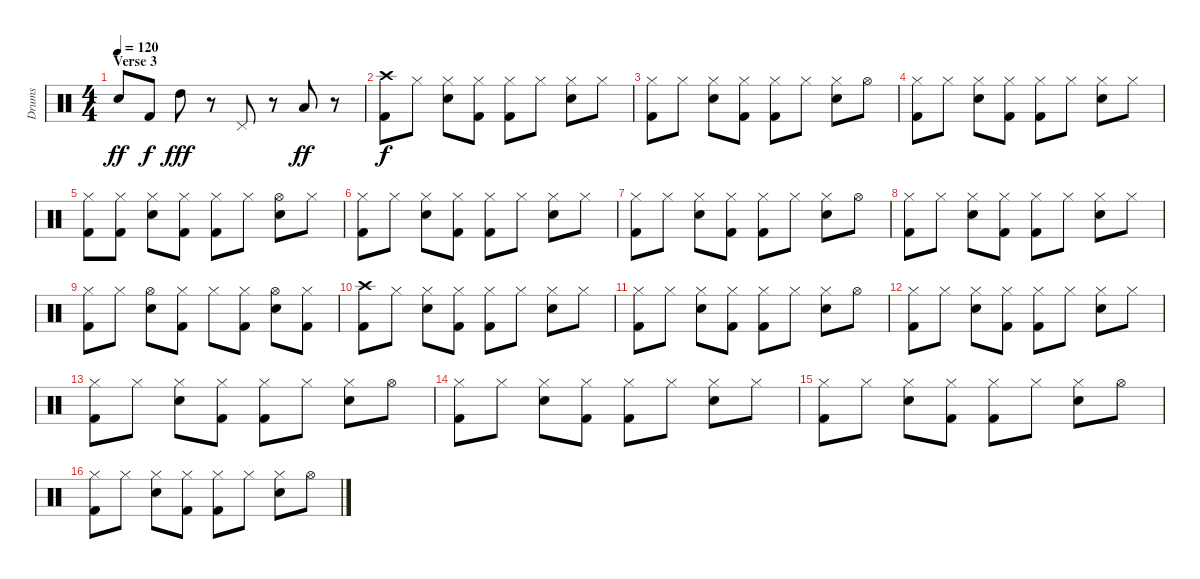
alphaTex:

\track ("Drums" "Drums") {instrument percussion}
\staff {score}
\articulation defaults
\ts (4 4)
\section ("" "Verse 3")
\tempo 120
\clef neutral
\ks c "Snare (hit) 2".8{dy ff} "Kick (hit) 2".8{dy f} "High Tom (hit)".8{dy fff}
r.8 "Pedal Hi-Hat (hit)".8 r.8 "Low Tom (hit)".8{dy ff} r.8 |
("Crash high (hit)" "Kick (hit) 2").8{dy f} "Hi-Hat (closed)".8 ("Hi-Hat (closed)" "Snare (hit) 2").8 ("Hi-Hat (closed)" "Kick (hit) 2").8 ("Hi-Hat (closed)" "Kick (hit) 2").8 "Hi-Hat (closed)".8 ("Hi-Hat (closed)" "Snare (hit) 2").8 "Hi-Hat (closed)".8 |
("Hi-Hat (closed)" "Kick (hit) 2").8 "Hi-Hat (closed)".8 ("Hi-Hat (closed)" "Snare (hit) 2").8 ("Hi-Hat (closed)" "Kick (hit) 2").8 ("Hi-Hat (closed)" "Kick (hit) 2").8 "Hi-Hat (closed)".8 ("Hi-Hat (closed)" "Snare (hit) 2").8 "Hi-Hat (open)".8 |
("Hi-Hat (closed)" "Kick (hit) 2").8 "Hi-Hat (closed)".8 ("Hi-Hat (closed)" "Snare (hit) 2").8 ("Hi-Hat (closed)" "Kick (hit) 2").8 ("Hi-Hat (closed)" "Kick (hit) 2").8 "Hi-Hat (closed)".8 ("Hi-Hat (closed)" "Snare (hit) 2").8 "Hi-Hat (closed)".8 |
("Hi-Hat (closed)" "Kick (hit) 2").8 ("Hi-Hat (closed)" "Kick (hit) 2").8 ("Hi-Hat (closed)" "Snare (hit) 2").8 ("Hi-Hat (closed)" "Kick (hit) 2").8 ("Hi-Hat (closed)" "Kick (hit) 2").8 "Hi-Hat (closed)".8 ("Hi-Hat (open)" "Snare (hit) 2").8 "Hi-Hat (closed)".8 |
("Hi-Hat (closed)" "Kick (hit) 2").8 "Hi-Hat (closed)".8 ("Hi-Hat (closed)" "Snare (hit) 2").8 ("Hi-Hat (closed)" "Kick (hit) 2").8 ("Hi-Hat (closed)" "Kick (hit) 2").8 "Hi-Hat (closed)".8 ("Hi-Hat (closed)" "Snare (hit) 2").8 "Hi-Hat (closed)".8 |
("Hi-Hat (closed)" "Kick (hit) 2").8 "Hi-Hat (closed)".8 ("Hi-Hat (closed)" "Snare (hit) 2").8 ("Hi-Hat (closed)" "Kick (hit) 2").8 ("Hi-Hat (closed)" "Kick (hit) 2").8 "Hi-Hat (closed)".8 ("Hi-Hat (closed)" "Snare (hit) 2").8 "Hi-Hat (open)".8 |
("Hi-Hat (closed)" "Kick (hit) 2").8 "Hi-Hat (closed)".8 ("Hi-Hat (closed)" "Snare (hit) 2").8 ("Hi-Hat (closed)" "Kick (hit) 2").8 ("Hi-Hat (closed)" "Kick (hit) 2").8 "Hi-Hat (closed)".8 ("Hi-Hat (closed)" "Snare (hit) 2").8 "Hi-Hat (closed)".8 |
("Hi-Hat (closed)" "Kick (hit) 2").8 "Hi-Hat (closed)".8 ("Hi-Hat (open)" "Snare (hit) 2").8 ("Hi-Hat (closed)" "Kick (hit) 2").8 "Hi-Hat (closed)".8 ("Hi-Hat (closed)" "Kick (hit) 2").8 ("Hi-Hat (open)" "Snare (hit) 2").8 ("Hi-Hat (closed)" "Kick (hit) 2").8 |
("Crash high (hit)" "Kick (hit) 2").8 "Hi-Hat (closed)".8 ("Hi-Hat (closed)" "Snare (hit) 2").8 ("Hi-Hat (closed)" "Kick (hit) 2").8 ("Hi-Hat (closed)" "Kick (hit) 2").8 "Hi-Hat (closed)".8 ("Hi-Hat (closed)" "Snare (hit) 2").8 "Hi-Hat (closed)".8 |
("Hi-Hat (closed)" "Kick (hit) 2").8 "Hi-Hat (closed)".8 ("Hi-Hat (closed)" "Snare (hit) 2").8 ("Hi-Hat (closed)" "Kick (hit) 2").8 ("Hi-Hat (closed)" "Kick (hit) 2").8 "Hi-Hat (closed)".8 ("Hi-Hat (closed)" "Snare (hit) 2").8 "Hi-Hat (open)".8 |
("Hi-Hat (closed)" "Kick (hit) 2").8 "Hi-Hat (closed)".8 ("Hi-Hat (closed)" "Snare (hit) 2").8 ("Hi-Hat (closed)" "Kick (hit) 2").8 ("Hi-Hat (closed)" "Kick (hit) 2").8 "Hi-Hat (closed)".8 ("Hi-Hat (closed)" "Snare (hit) 2").8 "Hi-Hat (closed)".8 |
("Hi-Hat (closed)" "Kick (hit) 2").8 "Hi-Hat (closed)".8 ("Hi-Hat (closed)" "Snare (hit) 2").8 ("Hi-Hat (closed)" "Kick (hit) 2").8 ("Hi-Hat (closed)" "Kick (hit) 2").8 "Hi-Hat (closed)".8 ("Hi-Hat (closed)" "Snare (hit) 2").8 "Hi-Hat (open)".8 |
("Hi-Hat (closed)" "Kick (hit) 2").8 "Hi-Hat (closed)".8 ("Hi-Hat (closed)" "Snare (hit) 2").8 ("Hi-Hat (closed)" "Kick (hit) 2").8 ("Hi-Hat (closed)" "Kick (hit) 2").8 "Hi-Hat (closed)".8 ("Hi-Hat (closed)" "Snare (hit) 2").8 "Hi-Hat (closed)".8 |
("Hi-Hat (closed)" "Kick (hit) 2").8 "Hi-Hat (closed)".8 ("Hi-Hat (closed)" "Snare (hit) 2").8 ("Hi-Hat (closed)" "Kick (hit) 2").8 ("Hi-Hat (closed)" "Kick (hit) 2").8 "Hi-Hat (closed)".8 ("Hi-Hat (closed)" "Snare (hit) 2").8 "Hi-Hat (open)".8 |
("Hi-Hat (closed)" "Kick (hit) 2").8 "Hi-Hat (closed)".8 ("Hi-Hat (closed)" "Snare (hit) 2").8 ("Hi-Hat (closed)" "Kick (hit) 2").8 ("Hi-Hat (closed)" "Kick (hit) 2").8 "Hi-Hat (closed)".8 ("Hi-Hat (closed)" "Snare (hit) 2").8 "Hi-Hat (open)".8
